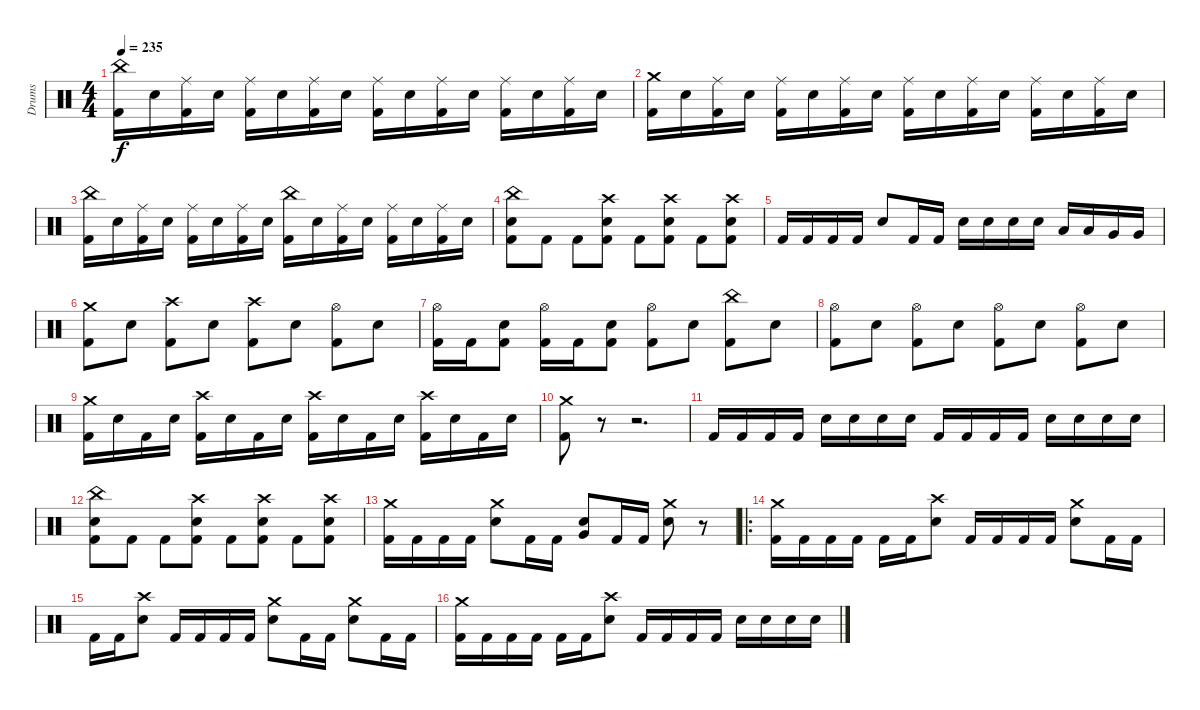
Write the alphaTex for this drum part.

\track ("Drums" "Drums") {instrument percussion}
\staff {score}
\articulation defaults
\ts (4 4)
\tempo 235
\clef neutral
\ks c
("China (hit)" "Kick (hit) 2").16{dy f} "Electric Snare (hit)".16 ("Ride (middle)" "Kick (hit) 2").16 "Electric Snare (hit)".16 ("Ride (middle)" "Kick (hit) 2").16 "Electric Snare (hit)".16 ("Ride (middle)" "Kick (hit) 2").16 "Electric Snare (hit)".16 ("Ride (middle)" "Kick (hit) 2").16 "Electric Snare (hit)".16 ("Ride (middle)" "Kick (hit) 2").16 "Electric Snare (hit)".16 ("Ride (middle)" "Kick (hit) 2").16 "Electric Snare (hit)".16 ("Ride (middle)" "Kick (hit) 2").16 "Electric Snare (hit)".16 |
("Crash medium (hit)" "Kick (hit) 2").16 "Electric Snare (hit)".16 ("Ride (middle)" "Kick (hit) 2").16 "Electric Snare (hit)".16 ("Ride (middle)" "Kick (hit) 2").16 "Electric Snare (hit)".16 ("Ride (middle)" "Kick (hit) 2").16 "Electric Snare (hit)".16 ("Ride (middle)" "Kick (hit) 2").16 "Electric Snare (hit)".16 ("Ride (middle)" "Kick (hit) 2").16 "Electric Snare (hit)".16 ("Ride (middle)" "Kick (hit) 2").16 "Electric Snare (hit)".16 ("Ride (middle)" "Kick (hit) 2").16 "Electric Snare (hit)".16 |
("China (hit)" "Kick (hit) 2").16 "Electric Snare (hit)".16 ("Ride (middle)" "Kick (hit) 2").16 "Electric Snare (hit)".16 ("Ride (middle)" "Kick (hit) 2").16 "Electric Snare (hit)".16 ("Ride (middle)" "Kick (hit) 2").16 "Electric Snare (hit)".16 ("China (hit)" "Kick (hit) 2").16 "Electric Snare (hit)".16 ("Ride (middle)" "Kick (hit) 2").16 "Electric Snare (hit)".16 ("Ride (middle)" "Kick (hit) 2").16 "Electric Snare (hit)".16 ("Ride (middle)" "Kick (hit) 2").16 "Electric Snare (hit)".16 |
("China (hit)" "Electric Snare (hit)" "Kick (hit) 2").8 "Kick (hit) 2".8 "Kick (hit) 2".8 ("Crash high (hit)" "Electric Snare (hit)" "Kick (hit) 2").8 "Kick (hit) 2".8 ("Crash high (hit)" "Electric Snare (hit)" "Kick (hit) 2").8 "Kick (hit) 2".8 ("Crash high (hit)" "Electric Snare (hit)" "Kick (hit) 2").8 |
"Kick (hit) 2".16 "Kick (hit) 2".16 "Kick (hit) 2".16 "Kick (hit) 2".16 "Electric Snare (hit)".8 "Kick (hit) 2".16 "Kick (hit) 2".16 "Electric Snare (hit)".16 "Electric Snare (hit)".16 "Electric Snare (hit)".16 "Electric Snare (hit)".16 "Low Tom (hit)".16 "Low Tom (hit)".16 "Very Low Tom (hit)".16 "Very Low Tom (hit)".16 |
("Crash medium (hit)" "Kick (hit) 2").8 "Electric Snare (hit)".8 ("Crash high (hit)" "Kick (hit) 2").8 "Electric Snare (hit)".8 ("Crash high (hit)" "Kick (hit) 2").8 "Electric Snare (hit)".8 ("Hi-Hat (open)" "Kick (hit) 2").8 "Electric Snare (hit)".8 |
("Hi-Hat (open)" "Kick (hit) 2").16 "Kick (hit) 2".16 ("Electric Snare (hit)" "Kick (hit) 2").8 ("Hi-Hat (open)" "Kick (hit) 2").16 "Kick (hit) 2".16 ("Electric Snare (hit)" "Kick (hit) 2").8 ("Hi-Hat (open)" "Kick (hit) 2").8 "Electric Snare (hit)".8 ("China (hit)" "Kick (hit) 2").8 "Electric Snare (hit)".8 |
("Hi-Hat (open)" "Kick (hit) 2").8 "Electric Snare (hit)".8 ("Hi-Hat (open)" "Kick (hit) 2").8 "Electric Snare (hit)".8 ("Hi-Hat (open)" "Kick (hit) 2").8 "Electric Snare (hit)".8 ("Hi-Hat (open)" "Kick (hit) 2").8 "Electric Snare (hit)".8 |
("Crash medium (hit)" "Kick (hit) 2").16 "Electric Snare (hit)".16 "Kick (hit) 2".16 "Electric Snare (hit)".16 ("Crash high (hit)" "Kick (hit) 2").16 "Electric Snare (hit)".16 "Kick (hit) 2".16 "Electric Snare (hit)".16 ("Crash high (hit)" "Kick (hit) 2").16 "Electric Snare (hit)".16 "Kick (hit) 2".16 "Electric Snare (hit)".16 ("Crash high (hit)" "Kick (hit) 2").16 "Electric Snare (hit)".16 "Kick (hit) 2".16 "Electric Snare (hit)".16 |
("Crash medium (hit)" "Kick (hit) 2").8 r.8 r.2{d} |
"Kick (hit) 2".16 "Kick (hit) 2".16 "Kick (hit) 2".16 "Kick (hit) 2".16 "Electric Snare (hit)".16 "Electric Snare (hit)".16 "Electric Snare (hit)".16 "Electric Snare (hit)".16 "Kick (hit) 2".16 "Kick (hit) 2".16 "Kick (hit) 2".16 "Kick (hit) 2".16 "Electric Snare (hit)".16 "Electric Snare (hit)".16 "Electric Snare (hit)".16 "Electric Snare (hit)".16 |
("China (hit)" "Electric Snare (hit)" "Kick (hit) 2").8 "Kick (hit) 2".8 "Kick (hit) 2".8 ("Crash high (hit)" "Electric Snare (hit)" "Kick (hit) 2").8 "Kick (hit) 2".8 ("Crash high (hit)" "Electric Snare (hit)" "Kick (hit) 2").8 "Kick (hit) 2".8 ("Crash high (hit)" "Electric Snare (hit)" "Kick (hit) 2").8 |
("Crash medium (hit)" "Kick (hit) 2").16 "Kick (hit) 2".16 "Kick (hit) 2".16 "Kick (hit) 2".16 ("Crash medium (hit)" "Electric Snare (hit)").8 "Kick (hit) 2".16 "Kick (hit) 2".16 ("Very Low Tom (hit)" "Electric Snare (hit)").8 "Kick (hit) 2".16 "Kick (hit) 2".16 ("Crash medium (hit)" "Electric Snare (hit)").8 r.8 |
\ro
("Crash medium (hit)" "Kick (hit) 2").16 "Kick (hit) 2".16 "Kick (hit) 2".16 "Kick (hit) 2".16 "Kick (hit) 2".16 "Kick (hit) 2".16 ("Crash high (hit)" "Electric Snare (hit)").8 "Kick (hit) 2".16 "Kick (hit) 2".16 "Kick (hit) 2".16 "Kick (hit) 2".16 ("Crash medium (hit)" "Electric Snare (hit)").8 "Kick (hit) 2".16 "Kick (hit) 2".16 |
"Kick (hit) 2".16 "Kick (hit) 2".16 ("Crash high (hit)" "Electric Snare (hit)").8 "Kick (hit) 2".16 "Kick (hit) 2".16 "Kick (hit) 2".16 "Kick (hit) 2".16 ("Crash medium (hit)" "Electric Snare (hit)").8 "Kick (hit) 2".16 "Kick (hit) 2".16 ("Crash medium (hit)" "Electric Snare (hit)").8 "Kick (hit) 2".16 "Kick (hit) 2".16 |
("Crash medium (hit)" "Kick (hit) 2").16 "Kick (hit) 2".16 "Kick (hit) 2".16 "Kick (hit) 2".16 "Kick (hit) 2".16 "Kick (hit) 2".16 ("Crash high (hit)" "Electric Snare (hit)").8 "Kick (hit) 2".16 "Kick (hit) 2".16 "Kick (hit) 2".16 "Kick (hit) 2".16 "Electric Snare (hit)".16 "Electric Snare (hit)".16 "Electric Snare (hit)".16 "Electric Snare (hit)".16
